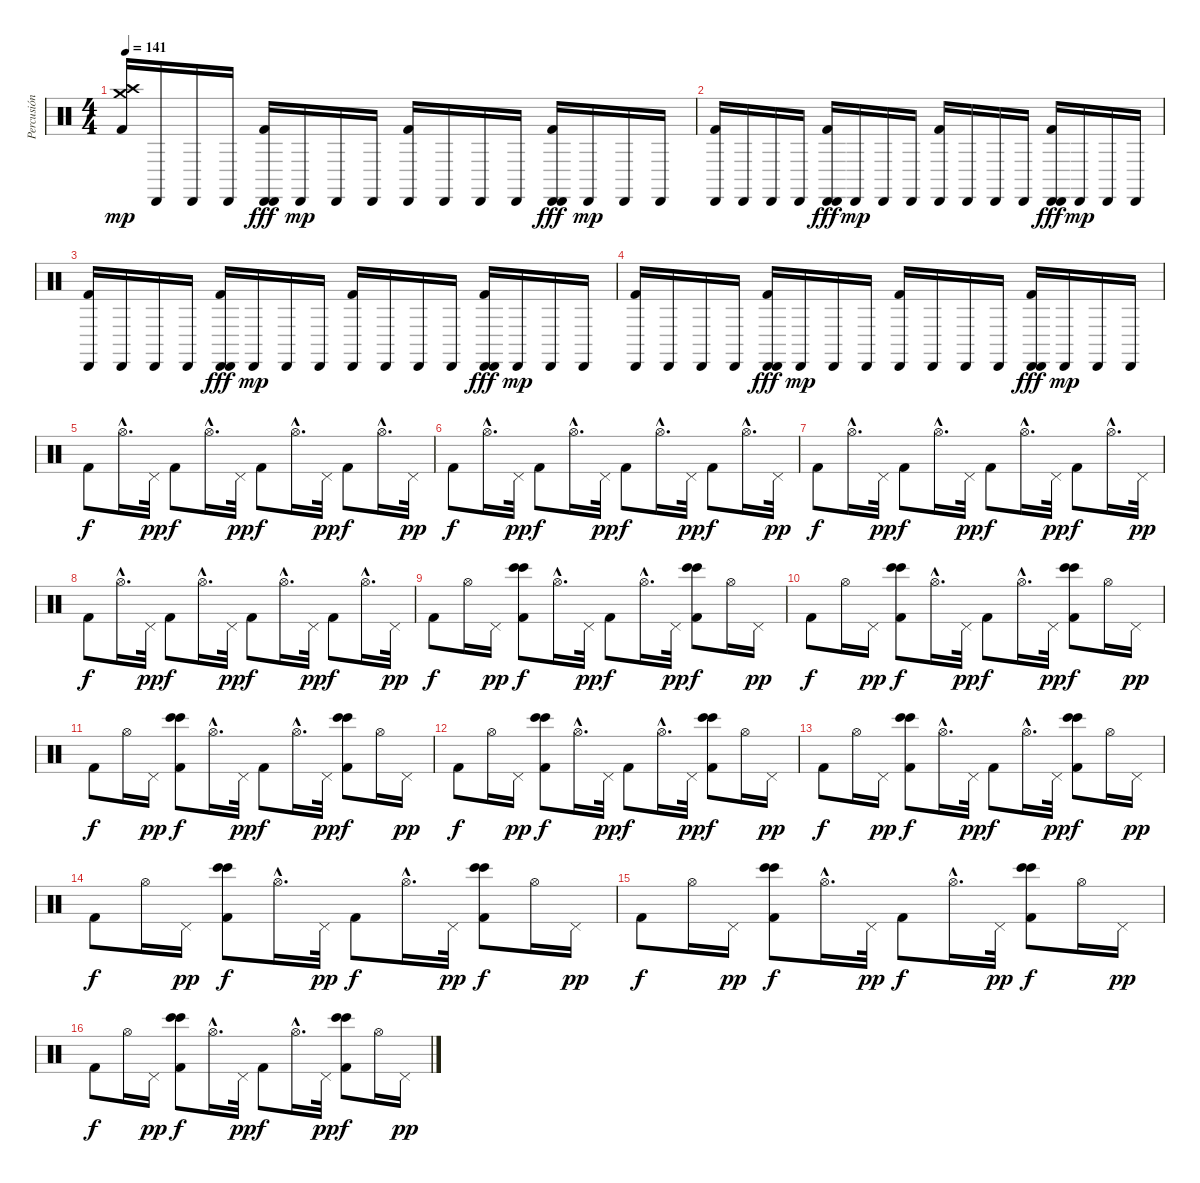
\track ("Percusión" "Percusión") {instrument percussion}
\staff {score}
\articulation defaults
\ts (4 4)
\tempo 141
\clef neutral
\ks c
("Crash high (hit)" "Crash medium (hit)" "Kick (hit) 2").16{dy mp} "Cabasa (hit)".16 "Cabasa (hit)".16 "Cabasa (hit)".16 ("Cabasa (hit)" "Cabasa (hit)" "Kick (hit) 2").16{dy fff} "Cabasa (hit)".16{dy mp} "Cabasa (hit)".16 "Cabasa (hit)".16 ("Cabasa (hit)" "Kick (hit) 2").16 "Cabasa (hit)".16 "Cabasa (hit)".16 "Cabasa (hit)".16 ("Cabasa (hit)" "Cabasa (hit)" "Kick (hit) 2").16{dy fff} "Cabasa (hit)".16{dy mp} "Cabasa (hit)".16 "Cabasa (hit)".16 |
("Cabasa (hit)" "Kick (hit) 2").16 "Cabasa (hit)".16 "Cabasa (hit)".16 "Cabasa (hit)".16 ("Cabasa (hit)" "Cabasa (hit)" "Kick (hit) 2").16{dy fff} "Cabasa (hit)".16{dy mp} "Cabasa (hit)".16 "Cabasa (hit)".16 ("Cabasa (hit)" "Kick (hit) 2").16 "Cabasa (hit)".16 "Cabasa (hit)".16 "Cabasa (hit)".16 ("Cabasa (hit)" "Cabasa (hit)" "Kick (hit) 2").16{dy fff} "Cabasa (hit)".16{dy mp} "Cabasa (hit)".16 "Cabasa (hit)".16 |
("Cabasa (hit)" "Kick (hit) 2").16 "Cabasa (hit)".16 "Cabasa (hit)".16 "Cabasa (hit)".16 ("Cabasa (hit)" "Cabasa (hit)" "Kick (hit) 2").16{dy fff} "Cabasa (hit)".16{dy mp} "Cabasa (hit)".16 "Cabasa (hit)".16 ("Cabasa (hit)" "Kick (hit) 2").16 "Cabasa (hit)".16 "Cabasa (hit)".16 "Cabasa (hit)".16 ("Cabasa (hit)" "Cabasa (hit)" "Kick (hit) 2").16{dy fff} "Cabasa (hit)".16{dy mp} "Cabasa (hit)".16 "Cabasa (hit)".16 |
("Cabasa (hit)" "Kick (hit) 2").16 "Cabasa (hit)".16 "Cabasa (hit)".16 "Cabasa (hit)".16 ("Cabasa (hit)" "Cabasa (hit)" "Kick (hit) 2").16{dy fff} "Cabasa (hit)".16{dy mp} "Cabasa (hit)".16 "Cabasa (hit)".16 ("Cabasa (hit)" "Kick (hit) 2").16 "Cabasa (hit)".16 "Cabasa (hit)".16 "Cabasa (hit)".16 ("Cabasa (hit)" "Cabasa (hit)" "Kick (hit) 2").16{dy fff} "Cabasa (hit)".16{dy mp} "Cabasa (hit)".16 "Cabasa (hit)".16 |
"Kick (hit) 2".8{dy f} "Hi-Hat (open)"{hac}.16{d} "Pedal Hi-Hat (hit)".32{dy pp} "Kick (hit) 2".8{dy f} "Hi-Hat (open)"{hac}.16{d} "Pedal Hi-Hat (hit)".32{dy pp} "Kick (hit) 2".8{dy f} "Hi-Hat (open)"{hac}.16{d} "Pedal Hi-Hat (hit)".32{dy pp} "Kick (hit) 2".8{dy f} "Hi-Hat (open)"{hac}.16{d} "Pedal Hi-Hat (hit)".32{dy pp} |
"Kick (hit) 2".8{dy f} "Hi-Hat (open)"{hac}.16{d} "Pedal Hi-Hat (hit)".32{dy pp} "Kick (hit) 2".8{dy f} "Hi-Hat (open)"{hac}.16{d} "Pedal Hi-Hat (hit)".32{dy pp} "Kick (hit) 2".8{dy f} "Hi-Hat (open)"{hac}.16{d} "Pedal Hi-Hat (hit)".32{dy pp} "Kick (hit) 2".8{dy f} "Hi-Hat (open)"{hac}.16{d} "Pedal Hi-Hat (hit)".32{dy pp} |
"Kick (hit) 2".8{dy f} "Hi-Hat (open)"{hac}.16{d} "Pedal Hi-Hat (hit)".32{dy pp} "Kick (hit) 2".8{dy f} "Hi-Hat (open)"{hac}.16{d} "Pedal Hi-Hat (hit)".32{dy pp} "Kick (hit) 2".8{dy f} "Hi-Hat (open)"{hac}.16{d} "Pedal Hi-Hat (hit)".32{dy pp} "Kick (hit) 2".8{dy f} "Hi-Hat (open)"{hac}.16{d} "Pedal Hi-Hat (hit)".32{dy pp} |
"Kick (hit) 2".8{dy f} "Hi-Hat (open)"{hac}.16{d} "Pedal Hi-Hat (hit)".32{dy pp} "Kick (hit) 2".8{dy f} "Hi-Hat (open)"{hac}.16{d} "Pedal Hi-Hat (hit)".32{dy pp} "Kick (hit) 2".8{dy f} "Hi-Hat (open)"{hac}.16{d} "Pedal Hi-Hat (hit)".32{dy pp} "Kick (hit) 2".8{dy f} "Hi-Hat (open)"{hac}.16{d} "Pedal Hi-Hat (hit)".32{dy pp} |
"Kick (hit) 2".8{dy f} "Hi-Hat (open)".16 "Pedal Hi-Hat (hit)".16{dy pp} ("Bongo High (hit)" "Bongo High (hit)" "Kick (hit) 2").8{dy f} "Hi-Hat (open)"{hac}.16{d} "Pedal Hi-Hat (hit)".32{dy pp} "Kick (hit) 2".8{dy f} "Hi-Hat (open)"{hac}.16{d} "Pedal Hi-Hat (hit)".32{dy pp} ("Bongo High (hit)" "Bongo High (hit)" "Kick (hit) 2").8{dy f} "Hi-Hat (open)".16 "Pedal Hi-Hat (hit)".16{dy pp} |
"Kick (hit) 2".8{dy f} "Hi-Hat (open)".16 "Pedal Hi-Hat (hit)".16{dy pp} ("Bongo High (hit)" "Bongo High (hit)" "Kick (hit) 2").8{dy f} "Hi-Hat (open)"{hac}.16{d} "Pedal Hi-Hat (hit)".32{dy pp} "Kick (hit) 2".8{dy f} "Hi-Hat (open)"{hac}.16{d} "Pedal Hi-Hat (hit)".32{dy pp} ("Bongo High (hit)" "Bongo High (hit)" "Kick (hit) 2").8{dy f} "Hi-Hat (open)".16 "Pedal Hi-Hat (hit)".16{dy pp} |
"Kick (hit) 2".8{dy f} "Hi-Hat (open)".16 "Pedal Hi-Hat (hit)".16{dy pp} ("Bongo High (hit)" "Bongo High (hit)" "Kick (hit) 2").8{dy f} "Hi-Hat (open)"{hac}.16{d} "Pedal Hi-Hat (hit)".32{dy pp} "Kick (hit) 2".8{dy f} "Hi-Hat (open)"{hac}.16{d} "Pedal Hi-Hat (hit)".32{dy pp} ("Bongo High (hit)" "Bongo High (hit)" "Kick (hit) 2").8{dy f} "Hi-Hat (open)".16 "Pedal Hi-Hat (hit)".16{dy pp} |
"Kick (hit) 2".8{dy f} "Hi-Hat (open)".16 "Pedal Hi-Hat (hit)".16{dy pp} ("Bongo High (hit)" "Bongo High (hit)" "Kick (hit) 2").8{dy f} "Hi-Hat (open)"{hac}.16{d} "Pedal Hi-Hat (hit)".32{dy pp} "Kick (hit) 2".8{dy f} "Hi-Hat (open)"{hac}.16{d} "Pedal Hi-Hat (hit)".32{dy pp} ("Bongo High (hit)" "Bongo High (hit)" "Kick (hit) 2").8{dy f} "Hi-Hat (open)".16 "Pedal Hi-Hat (hit)".16{dy pp} |
"Kick (hit) 2".8{dy f} "Hi-Hat (open)".16 "Pedal Hi-Hat (hit)".16{dy pp} ("Bongo High (hit)" "Bongo High (hit)" "Kick (hit) 2").8{dy f} "Hi-Hat (open)"{hac}.16{d} "Pedal Hi-Hat (hit)".32{dy pp} "Kick (hit) 2".8{dy f} "Hi-Hat (open)"{hac}.16{d} "Pedal Hi-Hat (hit)".32{dy pp} ("Bongo High (hit)" "Bongo High (hit)" "Kick (hit) 2").8{dy f} "Hi-Hat (open)".16 "Pedal Hi-Hat (hit)".16{dy pp} |
"Kick (hit) 2".8{dy f} "Hi-Hat (open)".16 "Pedal Hi-Hat (hit)".16{dy pp} ("Bongo High (hit)" "Bongo High (hit)" "Kick (hit) 2").8{dy f} "Hi-Hat (open)"{hac}.16{d} "Pedal Hi-Hat (hit)".32{dy pp} "Kick (hit) 2".8{dy f} "Hi-Hat (open)"{hac}.16{d} "Pedal Hi-Hat (hit)".32{dy pp} ("Bongo High (hit)" "Bongo High (hit)" "Kick (hit) 2").8{dy f} "Hi-Hat (open)".16 "Pedal Hi-Hat (hit)".16{dy pp} |
"Kick (hit) 2".8{dy f} "Hi-Hat (open)".16 "Pedal Hi-Hat (hit)".16{dy pp} ("Bongo High (hit)" "Bongo High (hit)" "Kick (hit) 2").8{dy f} "Hi-Hat (open)"{hac}.16{d} "Pedal Hi-Hat (hit)".32{dy pp} "Kick (hit) 2".8{dy f} "Hi-Hat (open)"{hac}.16{d} "Pedal Hi-Hat (hit)".32{dy pp} ("Bongo High (hit)" "Bongo High (hit)" "Kick (hit) 2").8{dy f} "Hi-Hat (open)".16 "Pedal Hi-Hat (hit)".16{dy pp} |
"Kick (hit) 2".8{dy f} "Hi-Hat (open)".16 "Pedal Hi-Hat (hit)".16{dy pp} ("Bongo High (hit)" "Bongo High (hit)" "Kick (hit) 2").8{dy f} "Hi-Hat (open)"{hac}.16{d} "Pedal Hi-Hat (hit)".32{dy pp} "Kick (hit) 2".8{dy f} "Hi-Hat (open)"{hac}.16{d} "Pedal Hi-Hat (hit)".32{dy pp} ("Bongo High (hit)" "Bongo High (hit)" "Kick (hit) 2").8{dy f} "Hi-Hat (open)".16 "Pedal Hi-Hat (hit)".16{dy pp}
